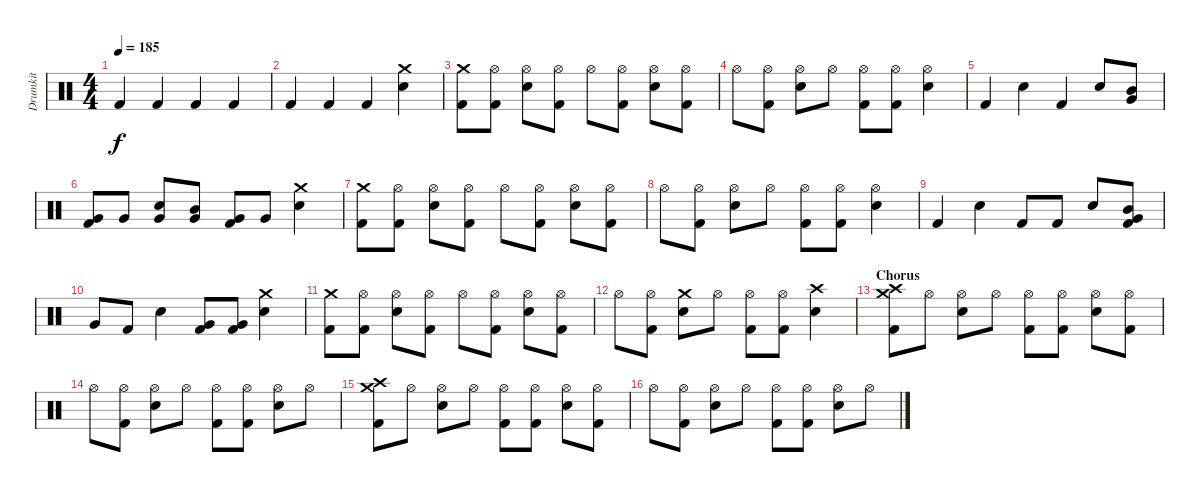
\track ("Drumkit" "Drumkit") {instrument percussion}
\staff {score}
\articulation defaults
\ts (4 4)
\tempo 185
\clef neutral
\ks c "Kick (hit) 2".4{dy f} "Kick (hit) 2".4 "Kick (hit) 2".4 "Kick (hit) 2".4
|
"Kick (hit) 2".4 "Kick (hit) 2".4 "Kick (hit) 2".4 ("Snare (hit) 2" "Crash medium (hit)").4 |
("Crash medium (hit)" "Kick (hit) 2").8 ("Hi-Hat (open)" "Kick (hit) 2").8 ("Hi-Hat (open)" "Snare (hit) 2").8 ("Hi-Hat (open)" "Kick (hit) 2").8 "Hi-Hat (open)".8 ("Hi-Hat (open)" "Kick (hit) 2").8 ("Hi-Hat (open)" "Snare (hit) 2").8 ("Hi-Hat (open)" "Kick (hit) 2").8 |
"Hi-Hat (open)".8 ("Hi-Hat (open)" "Kick (hit) 2").8 ("Hi-Hat (open)" "Snare (hit) 2").8 "Hi-Hat (open)".8 ("Hi-Hat (open)" "Kick (hit) 2").8 ("Hi-Hat (open)" "Kick (hit) 2").8 ("Hi-Hat (open)" "Snare (hit) 2").4 |
"Kick (hit) 2".4 "Snare (hit) 2".4 "Kick (hit) 2".4 "Snare (hit) 2".8 ("Mid Tom (hit)" "Very Low Tom (hit)").8 |
("Very Low Tom (hit)" "Kick (hit) 2").8 "Very Low Tom (hit)".8 ("Very Low Tom (hit)" "Snare (hit) 2").8 ("Very Low Tom (hit)" "Mid Tom (hit)").8 ("Very Low Tom (hit)" "Kick (hit) 2").8 "Very Low Tom (hit)".8 ("Snare (hit) 2" "Crash medium (hit)").4 |
("Crash medium (hit)" "Kick (hit) 2").8 ("Hi-Hat (open)" "Kick (hit) 2").8 ("Hi-Hat (open)" "Snare (hit) 2").8 ("Hi-Hat (open)" "Kick (hit) 2").8 "Hi-Hat (open)".8 ("Hi-Hat (open)" "Kick (hit) 2").8 ("Hi-Hat (open)" "Snare (hit) 2").8 ("Hi-Hat (open)" "Kick (hit) 2").8 |
"Hi-Hat (open)".8 ("Hi-Hat (open)" "Kick (hit) 2").8 ("Hi-Hat (open)" "Snare (hit) 2").8 "Hi-Hat (open)".8 ("Hi-Hat (open)" "Kick (hit) 2").8 ("Hi-Hat (open)" "Kick (hit) 2").8 ("Hi-Hat (open)" "Snare (hit) 2").4 |
"Kick (hit) 2".4 "Snare (hit) 2".4 "Kick (hit) 2".8 "Kick (hit) 2".8 "Snare (hit) 2".8 ("Kick (hit) 2" "Mid Tom (hit)" "Very Low Tom (hit)").8 |
"Very Low Tom (hit)".8 "Kick (hit) 2".8 "Snare (hit) 2".4 ("Very Low Tom (hit)" "Kick (hit) 2").8 ("Very Low Tom (hit)" "Kick (hit) 2").8 ("Snare (hit) 2" "Crash medium (hit)").4 |
("Crash medium (hit)" "Kick (hit) 2").8 ("Hi-Hat (open)" "Kick (hit) 2").8 ("Hi-Hat (open)" "Snare (hit) 2").8 ("Hi-Hat (open)" "Kick (hit) 2").8 "Hi-Hat (open)".8 ("Hi-Hat (open)" "Kick (hit) 2").8 ("Hi-Hat (open)" "Snare (hit) 2").8 ("Hi-Hat (open)" "Kick (hit) 2").8 |
"Hi-Hat (open)".8 ("Hi-Hat (open)" "Kick (hit) 2").8 ("Crash medium (hit)" "Snare (hit) 2").8 "Hi-Hat (open)".8 ("Hi-Hat (open)" "Kick (hit) 2").8 ("Hi-Hat (open)" "Kick (hit) 2").8 ("Crash high (hit)" "Snare (hit) 2").4 |
\section ("" "Chorus")
("Crash high (hit)" "Kick (hit) 2" "Crash medium (hit)").8 "Hi-Hat (open)".8 ("Hi-Hat (open)" "Snare (hit) 2").8 "Hi-Hat (open)".8 ("Hi-Hat (open)" "Kick (hit) 2").8 ("Hi-Hat (open)" "Kick (hit) 2").8 ("Hi-Hat (open)" "Snare (hit) 2").8 ("Hi-Hat (open)" "Kick (hit) 2").8 |
"Hi-Hat (open)".8 ("Hi-Hat (open)" "Kick (hit) 2").8 ("Hi-Hat (open)" "Snare (hit) 2").8 "Hi-Hat (open)".8 ("Hi-Hat (open)" "Kick (hit) 2").8 ("Hi-Hat (open)" "Kick (hit) 2").8 ("Hi-Hat (open)" "Snare (hit) 2").8 "Hi-Hat (open)".8 |
("Crash high (hit)" "Kick (hit) 2" "Crash medium (hit)").8 "Hi-Hat (open)".8 ("Hi-Hat (open)" "Snare (hit) 2").8 "Hi-Hat (open)".8 ("Hi-Hat (open)" "Kick (hit) 2").8 ("Hi-Hat (open)" "Kick (hit) 2").8 ("Hi-Hat (open)" "Snare (hit) 2").8 ("Hi-Hat (open)" "Kick (hit) 2").8 |
"Hi-Hat (open)".8 ("Hi-Hat (open)" "Kick (hit) 2").8 ("Hi-Hat (open)" "Snare (hit) 2").8 "Hi-Hat (open)".8 ("Hi-Hat (open)" "Kick (hit) 2").8 ("Hi-Hat (open)" "Kick (hit) 2").8 ("Hi-Hat (open)" "Snare (hit) 2").8 "Hi-Hat (open)".8
